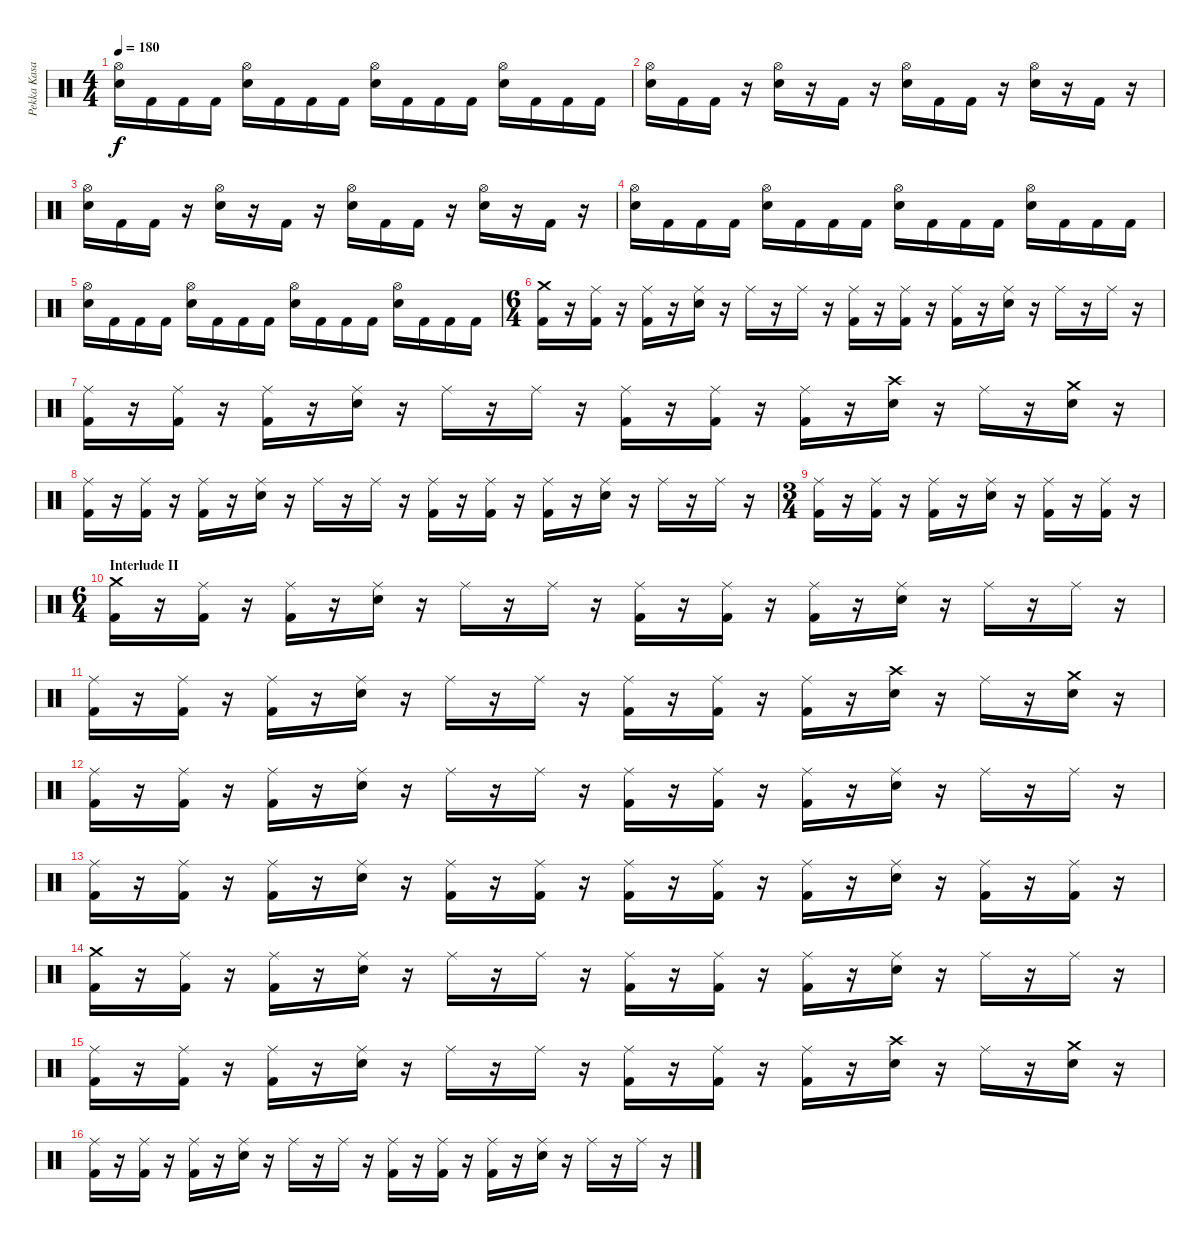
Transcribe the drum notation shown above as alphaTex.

\track ("Pekka Kasari" "Pekka Kasa") {instrument percussion}
\staff {score}
\articulation defaults
\ts (4 4)
\tempo 180
\clef neutral
\ks c
("Hi-Hat (open)" "Electric Snare (hit)").16{dy f} "Kick (hit) 2".16 "Kick (hit) 2".16 "Kick (hit) 2".16 ("Hi-Hat (open)" "Electric Snare (hit)").16 "Kick (hit) 2".16 "Kick (hit) 2".16 "Kick (hit) 2".16 ("Hi-Hat (open)" "Electric Snare (hit)").16 "Kick (hit) 2".16 "Kick (hit) 2".16 "Kick (hit) 2".16 ("Hi-Hat (open)" "Electric Snare (hit)").16 "Kick (hit) 2".16 "Kick (hit) 2".16 "Kick (hit) 2".16 |
("Hi-Hat (open)" "Electric Snare (hit)").16 "Kick (hit) 2".16 "Kick (hit) 2".16 r.16 ("Hi-Hat (open)" "Electric Snare (hit)").16 r.16 "Kick (hit) 2".16 r.16 ("Hi-Hat (open)" "Electric Snare (hit)").16 "Kick (hit) 2".16 "Kick (hit) 2".16 r.16 ("Hi-Hat (open)" "Electric Snare (hit)").16 r.16 "Kick (hit) 2".16 r.16 |
("Hi-Hat (open)" "Electric Snare (hit)").16 "Kick (hit) 2".16 "Kick (hit) 2".16 r.16 ("Hi-Hat (open)" "Electric Snare (hit)").16 r.16 "Kick (hit) 2".16 r.16 ("Hi-Hat (open)" "Electric Snare (hit)").16 "Kick (hit) 2".16 "Kick (hit) 2".16 r.16 ("Hi-Hat (open)" "Electric Snare (hit)").16 r.16 "Kick (hit) 2".16 r.16 |
("Hi-Hat (open)" "Electric Snare (hit)").16 "Kick (hit) 2".16 "Kick (hit) 2".16 "Kick (hit) 2".16 ("Hi-Hat (open)" "Electric Snare (hit)").16 "Kick (hit) 2".16 "Kick (hit) 2".16 "Kick (hit) 2".16 ("Hi-Hat (open)" "Electric Snare (hit)").16 "Kick (hit) 2".16 "Kick (hit) 2".16 "Kick (hit) 2".16 ("Hi-Hat (open)" "Electric Snare (hit)").16 "Kick (hit) 2".16 "Kick (hit) 2".16 "Kick (hit) 2".16 |
("Hi-Hat (open)" "Electric Snare (hit)").16 "Kick (hit) 2".16 "Kick (hit) 2".16 "Kick (hit) 2".16 ("Hi-Hat (open)" "Electric Snare (hit)").16 "Kick (hit) 2".16 "Kick (hit) 2".16 "Kick (hit) 2".16 ("Hi-Hat (open)" "Electric Snare (hit)").16 "Kick (hit) 2".16 "Kick (hit) 2".16 "Kick (hit) 2".16 ("Hi-Hat (open)" "Electric Snare (hit)").16 "Kick (hit) 2".16 "Kick (hit) 2".16 "Kick (hit) 2".16 |
\ts (6 4)
("Crash medium (hit)" "Kick (hit) 2").16 r.16 ("Ride (middle)" "Kick (hit) 2").16 r.16 ("Ride (middle)" "Kick (hit) 2").16 r.16 ("Ride (middle)" "Electric Snare (hit)").16 r.16 "Ride (middle)".16 r.16 "Ride (middle)".16 r.16 ("Ride (middle)" "Kick (hit) 2").16 r.16 ("Ride (middle)" "Kick (hit) 2").16 r.16 ("Ride (middle)" "Kick (hit) 2").16 r.16 ("Ride (middle)" "Electric Snare (hit)").16 r.16 "Ride (middle)".16 r.16 "Ride (middle)".16 r.16 |
("Ride (middle)" "Kick (hit) 2").16 r.16 ("Ride (middle)" "Kick (hit) 2").16 r.16 ("Ride (middle)" "Kick (hit) 2").16 r.16 ("Ride (middle)" "Electric Snare (hit)").16 r.16 "Ride (middle)".16 r.16 "Ride (middle)".16 r.16 ("Ride (middle)" "Kick (hit) 2").16 r.16 ("Ride (middle)" "Kick (hit) 2").16 r.16 ("Ride (middle)" "Kick (hit) 2").16 r.16 ("Crash high (hit)" "Electric Snare (hit)").16 r.16 "Ride (middle)".16 r.16 ("Crash medium (hit)" "Electric Snare (hit)").16 r.16 |
("Ride (middle)" "Kick (hit) 2").16 r.16 ("Ride (middle)" "Kick (hit) 2").16 r.16 ("Ride (middle)" "Kick (hit) 2").16 r.16 ("Ride (middle)" "Electric Snare (hit)").16 r.16 "Ride (middle)".16 r.16 "Ride (middle)".16 r.16 ("Ride (middle)" "Kick (hit) 2").16 r.16 ("Ride (middle)" "Kick (hit) 2").16 r.16 ("Ride (middle)" "Kick (hit) 2").16 r.16 ("Ride (middle)" "Electric Snare (hit)").16 r.16 "Ride (middle)".16 r.16 "Ride (middle)".16 r.16 |
\ts (3 4)
("Ride (middle)" "Kick (hit) 2").16 r.16 ("Ride (middle)" "Kick (hit) 2").16 r.16 ("Ride (middle)" "Kick (hit) 2").16 r.16 ("Ride (middle)" "Electric Snare (hit)").16 r.16 ("Ride (middle)" "Kick (hit) 2").16 r.16 ("Ride (middle)" "Kick (hit) 2").16 r.16 |
\ts (6 4)
\section ("" "Interlude II")
("Crash medium (hit)" "Kick (hit) 2").16 r.16 ("Ride (middle)" "Kick (hit) 2").16 r.16 ("Ride (middle)" "Kick (hit) 2").16 r.16 ("Ride (middle)" "Electric Snare (hit)").16 r.16 "Ride (middle)".16 r.16 "Ride (middle)".16 r.16 ("Ride (middle)" "Kick (hit) 2").16 r.16 ("Ride (middle)" "Kick (hit) 2").16 r.16 ("Ride (middle)" "Kick (hit) 2").16 r.16 ("Ride (middle)" "Electric Snare (hit)").16 r.16 "Ride (middle)".16 r.16 "Ride (middle)".16 r.16 |
("Ride (middle)" "Kick (hit) 2").16 r.16 ("Ride (middle)" "Kick (hit) 2").16 r.16 ("Ride (middle)" "Kick (hit) 2").16 r.16 ("Ride (middle)" "Electric Snare (hit)").16 r.16 "Ride (middle)".16 r.16 "Ride (middle)".16 r.16 ("Ride (middle)" "Kick (hit) 2").16 r.16 ("Ride (middle)" "Kick (hit) 2").16 r.16 ("Ride (middle)" "Kick (hit) 2").16 r.16 ("Crash high (hit)" "Electric Snare (hit)").16 r.16 "Ride (middle)".16 r.16 ("Crash medium (hit)" "Electric Snare (hit)").16 r.16 |
("Ride (middle)" "Kick (hit) 2").16 r.16 ("Ride (middle)" "Kick (hit) 2").16 r.16 ("Ride (middle)" "Kick (hit) 2").16 r.16 ("Ride (middle)" "Electric Snare (hit)").16 r.16 "Ride (middle)".16 r.16 "Ride (middle)".16 r.16 ("Ride (middle)" "Kick (hit) 2").16 r.16 ("Ride (middle)" "Kick (hit) 2").16 r.16 ("Ride (middle)" "Kick (hit) 2").16 r.16 ("Ride (middle)" "Electric Snare (hit)").16 r.16 "Ride (middle)".16 r.16 "Ride (middle)".16 r.16 |
("Ride (middle)" "Kick (hit) 2").16 r.16 ("Ride (middle)" "Kick (hit) 2").16 r.16 ("Ride (middle)" "Kick (hit) 2").16 r.16 ("Ride (middle)" "Electric Snare (hit)").16 r.16 ("Ride (middle)" "Kick (hit) 2").16 r.16 ("Ride (middle)" "Kick (hit) 2").16 r.16 ("Ride (middle)" "Kick (hit) 2").16 r.16 ("Ride (middle)" "Kick (hit) 2").16 r.16 ("Ride (middle)" "Kick (hit) 2").16 r.16 ("Ride (middle)" "Electric Snare (hit)").16 r.16 ("Ride (middle)" "Kick (hit) 2").16 r.16 ("Ride (middle)" "Kick (hit) 2").16 r.16 |
("Crash medium (hit)" "Kick (hit) 2").16 r.16 ("Ride (middle)" "Kick (hit) 2").16 r.16 ("Ride (middle)" "Kick (hit) 2").16 r.16 ("Ride (middle)" "Electric Snare (hit)").16 r.16 "Ride (middle)".16 r.16 "Ride (middle)".16 r.16 ("Ride (middle)" "Kick (hit) 2").16 r.16 ("Ride (middle)" "Kick (hit) 2").16 r.16 ("Ride (middle)" "Kick (hit) 2").16 r.16 ("Ride (middle)" "Electric Snare (hit)").16 r.16 "Ride (middle)".16 r.16 "Ride (middle)".16 r.16 |
("Ride (middle)" "Kick (hit) 2").16 r.16 ("Ride (middle)" "Kick (hit) 2").16 r.16 ("Ride (middle)" "Kick (hit) 2").16 r.16 ("Ride (middle)" "Electric Snare (hit)").16 r.16 "Ride (middle)".16 r.16 "Ride (middle)".16 r.16 ("Ride (middle)" "Kick (hit) 2").16 r.16 ("Ride (middle)" "Kick (hit) 2").16 r.16 ("Ride (middle)" "Kick (hit) 2").16 r.16 ("Crash high (hit)" "Electric Snare (hit)").16 r.16 "Ride (middle)".16 r.16 ("Crash medium (hit)" "Electric Snare (hit)").16 r.16 |
("Ride (middle)" "Kick (hit) 2").16 r.16 ("Ride (middle)" "Kick (hit) 2").16 r.16 ("Ride (middle)" "Kick (hit) 2").16 r.16 ("Ride (middle)" "Electric Snare (hit)").16 r.16 "Ride (middle)".16 r.16 "Ride (middle)".16 r.16 ("Ride (middle)" "Kick (hit) 2").16 r.16 ("Ride (middle)" "Kick (hit) 2").16 r.16 ("Ride (middle)" "Kick (hit) 2").16 r.16 ("Ride (middle)" "Electric Snare (hit)").16 r.16 "Ride (middle)".16 r.16 "Ride (middle)".16 r.16
